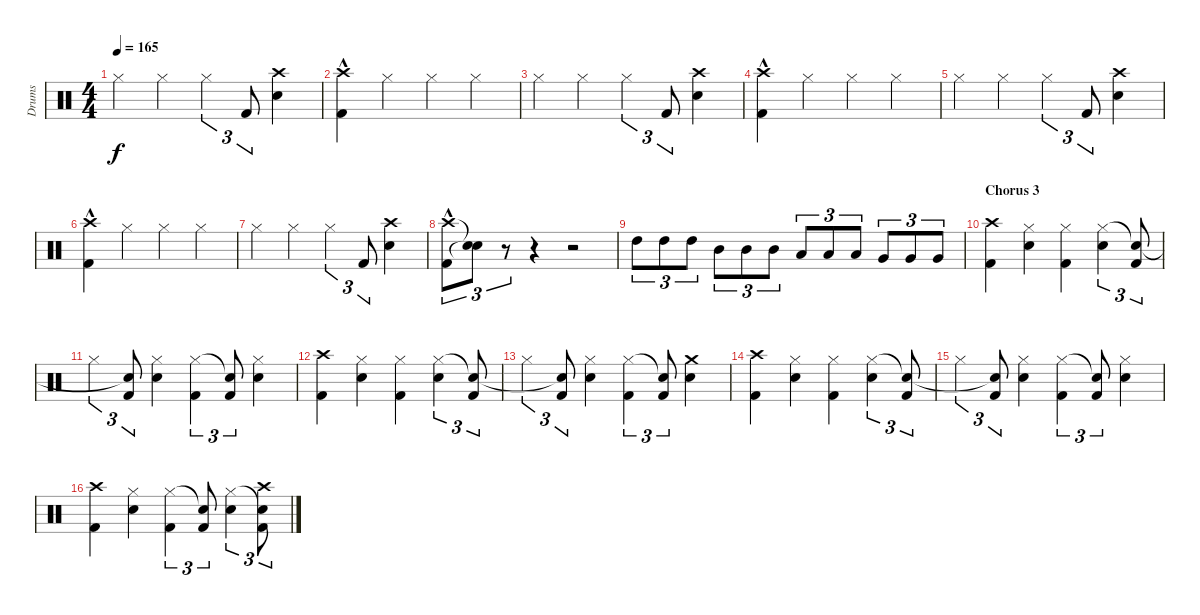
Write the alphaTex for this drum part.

\track ("Drums" "Drums") {instrument percussion}
\staff {score}
\articulation defaults
\ts (4 4)
\tempo 165
\clef neutral
\ks c "Hi-Hat (closed)".4{dy f} "Hi-Hat (closed)".4 "Hi-Hat (closed)".4{tu (3 2)} "Kick (hit) 2".8{tu (3 2)}
("Snare (hit) 2" "Crash high (hit)").4 |
("Kick (hit) 2" "Crash high (hit)"{hac}).4 "Hi-Hat (closed)".4 "Hi-Hat (closed)".4 "Hi-Hat (closed)".4 |
"Hi-Hat (closed)".4 "Hi-Hat (closed)".4 "Hi-Hat (closed)".4{tu (3 2)} "Kick (hit) 2".8{tu (3 2)} ("Snare (hit) 2" "Crash high (hit)").4 |
("Kick (hit) 2" "Crash high (hit)"{hac}).4 "Hi-Hat (closed)".4 "Hi-Hat (closed)".4 "Hi-Hat (closed)".4 |
"Hi-Hat (closed)".4 "Hi-Hat (closed)".4 "Hi-Hat (closed)".4{tu (3 2)} "Kick (hit) 2".8{tu (3 2)} ("Snare (hit) 2" "Crash high (hit)").4 |
("Kick (hit) 2" "Crash high (hit)"{hac}).4 "Hi-Hat (closed)".4 "Hi-Hat (closed)".4 "Hi-Hat (closed)".4 |
"Hi-Hat (closed)".4 "Hi-Hat (closed)".4 "Hi-Hat (closed)".4{tu (3 2)} "Kick (hit) 2".8{tu (3 2)} ("Snare (hit) 2" "Crash high (hit)").4 |
("Kick (hit) 2" "Crash high (hit)"{hac}).8{tu (3 2)} ("Snare (hit)"{t} "Snare (hit)"{t}).8{tu (3 2)} r.8{tu (3 2)} r.4 r.2 |
"High Tom (hit)".8{tu (3 2)} "High Tom (hit)".8{tu (3 2)} "High Tom (hit)".8{tu (3 2)} "Mid Tom (hit)".8{tu (3 2)} "Mid Tom (hit)".8{tu (3 2)} "Mid Tom (hit)".8{tu (3 2)} "Low Tom (hit)".8{tu (3 2)} "Low Tom (hit)".8{tu (3 2)} "Low Tom (hit)".8{tu (3 2)} "Very Low Tom (hit)".8{tu (3 2)} "Very Low Tom (hit)".8{tu (3 2)} "Very Low Tom (hit)".8{tu (3 2)} |
\section ("" "Chorus 3")
("Kick (hit) 2" "Crash high (hit)").4 ("Snare (hit) 2" "Hi-Hat (closed)").4 ("Kick (hit) 2" "Hi-Hat (closed)").4 ("Snare (hit) 2" "Hi-Hat (closed)").4{tu (3 2)} ("Kick (hit) 2" "Snare (hit)"{t}).8{tu (3 2)} |
"Hi-Hat (closed)".4{tu (3 2)} ("Kick (hit) 2" "Snare (hit)"{t}).8{tu (3 2)} ("Snare (hit) 2" "Hi-Hat (closed)").4 ("Kick (hit) 2" "Hi-Hat (closed)").4{tu (3 2)} ("Kick (hit) 2" "Snare (hit)"{t}).8{tu (3 2)} ("Snare (hit) 2" "Hi-Hat (closed)").4 |
("Kick (hit) 2" "Crash high (hit)").4 ("Snare (hit) 2" "Hi-Hat (closed)").4 ("Kick (hit) 2" "Hi-Hat (closed)").4 ("Snare (hit) 2" "Hi-Hat (closed)").4{tu (3 2)} ("Kick (hit) 2" "Snare (hit)"{t}).8{tu (3 2)} |
"Hi-Hat (closed)".4{tu (3 2)} ("Kick (hit) 2" "Snare (hit)"{t}).8{tu (3 2)} ("Snare (hit) 2" "Hi-Hat (closed)").4 ("Kick (hit) 2" "Hi-Hat (closed)").4{tu (3 2)} ("Kick (hit) 2" "Snare (hit)"{t}).8{tu (3 2)} ("Snare (hit) 2" "Crash medium (hit)").4 |
("Kick (hit) 2" "Crash high (hit)").4 ("Snare (hit) 2" "Hi-Hat (closed)").4 ("Kick (hit) 2" "Hi-Hat (closed)").4 ("Snare (hit) 2" "Hi-Hat (closed)").4{tu (3 2)} ("Kick (hit) 2" "Snare (hit)"{t}).8{tu (3 2)} |
"Hi-Hat (closed)".4{tu (3 2)} ("Kick (hit) 2" "Snare (hit)"{t}).8{tu (3 2)} ("Snare (hit) 2" "Hi-Hat (closed)").4 ("Kick (hit) 2" "Hi-Hat (closed)").4{tu (3 2)} ("Kick (hit) 2" "Snare (hit)"{t}).8{tu (3 2)} ("Snare (hit) 2" "Hi-Hat (closed)").4 |
("Kick (hit) 2" "Crash high (hit)").4 ("Snare (hit) 2" "Hi-Hat (closed)").4 ("Kick (hit) 2" "Hi-Hat (closed)").4{tu (3 2)} ("Kick (hit) 2" "Snare (hit)"{t}).8{tu (3 2)} ("Snare (hit) 2" "Hi-Hat (closed)").4{tu (3 2)} ("Kick (hit) 2" "Snare (hit)"{t} "Crash high (hit)").8{tu (3 2)}
